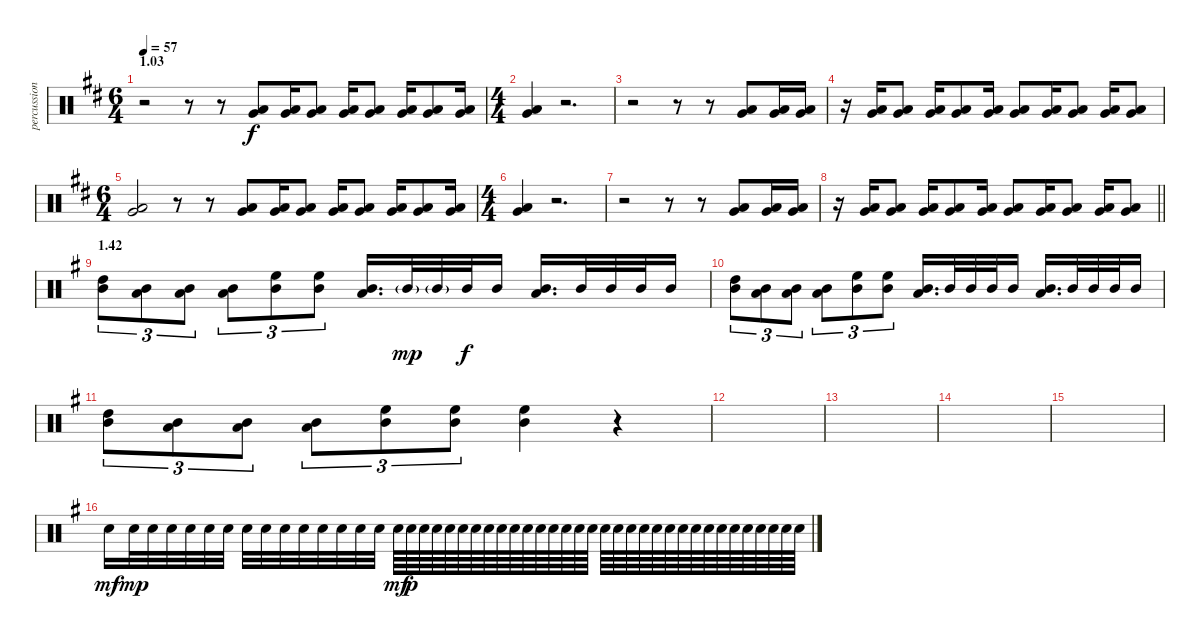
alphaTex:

\track ("percussion" "percussion") {instrument percussion}
\staff {score}
\articulation defaults
\ts (6 4)
\section ("" "1.03")
\tempo 57
\clef neutral
\ks d
r.2{dy f} r.8 r.8 ("Low Tom (hit)" "Very Low Tom (hit)").8 ("Low Tom (hit)" "Very Low Tom (hit)").16 ("Low Tom (hit)" "Very Low Tom (hit)").8 ("Low Tom (hit)" "Very Low Tom (hit)").16 ("Low Tom (hit)" "Very Low Tom (hit)").8 ("Low Tom (hit)" "Very Low Tom (hit)").16 ("Low Tom (hit)" "Very Low Tom (hit)").8 ("Low Tom (hit)" "Very Low Tom (hit)").16 |
\ts (4 4)
("Low Tom (hit)" "Very Low Tom (hit)").4 r.2{d} |
r.2 r.8 r.8 ("Low Tom (hit)" "Very Low Tom (hit)").8 ("Low Tom (hit)" "Very Low Tom (hit)").16 ("Low Tom (hit)" "Very Low Tom (hit)").16 |
r.16 ("Low Tom (hit)" "Very Low Tom (hit)").16 ("Low Tom (hit)" "Very Low Tom (hit)").8 ("Low Tom (hit)" "Very Low Tom (hit)").16 ("Low Tom (hit)" "Very Low Tom (hit)").8 ("Low Tom (hit)" "Very Low Tom (hit)").16 ("Low Tom (hit)" "Very Low Tom (hit)").8 ("Low Tom (hit)" "Very Low Tom (hit)").16 ("Low Tom (hit)" "Very Low Tom (hit)").8 ("Low Tom (hit)" "Very Low Tom (hit)").16 ("Low Tom (hit)" "Very Low Tom (hit)").8 |
\ts (6 4)
("Low Tom (hit)" "Very Low Tom (hit)").2 r.8 r.8 ("Low Tom (hit)" "Very Low Tom (hit)").8 ("Low Tom (hit)" "Very Low Tom (hit)").16 ("Low Tom (hit)" "Very Low Tom (hit)").8 ("Low Tom (hit)" "Very Low Tom (hit)").16 ("Low Tom (hit)" "Very Low Tom (hit)").8 ("Low Tom (hit)" "Very Low Tom (hit)").16 ("Low Tom (hit)" "Very Low Tom (hit)").8 ("Low Tom (hit)" "Very Low Tom (hit)").16 |
\ts (4 4)
("Low Tom (hit)" "Very Low Tom (hit)").4 r.2{d} |
r.2 r.8 r.8 ("Low Tom (hit)" "Very Low Tom (hit)").8 ("Low Tom (hit)" "Very Low Tom (hit)").16 ("Low Tom (hit)" "Very Low Tom (hit)").16 |
\barLineRight lightlight
r.16 ("Low Tom (hit)" "Very Low Tom (hit)").16 ("Low Tom (hit)" "Very Low Tom (hit)").8 ("Low Tom (hit)" "Very Low Tom (hit)").16 ("Low Tom (hit)" "Very Low Tom (hit)").8 ("Low Tom (hit)" "Very Low Tom (hit)").16 ("Low Tom (hit)" "Very Low Tom (hit)").8 ("Low Tom (hit)" "Very Low Tom (hit)").16 ("Low Tom (hit)" "Very Low Tom (hit)").8 ("Low Tom (hit)" "Very Low Tom (hit)").16 ("Low Tom (hit)" "Very Low Tom (hit)").8 |
\section ("" "1.42")
\ks g
("High Tom (hit)" "Mid Tom (hit)").8{tu (3 2)} ("Mid Tom (hit)" "Low Tom (hit)").8{tu (3 2)} ("Mid Tom (hit)" "Low Tom (hit)").8{tu (3 2)} ("Mid Tom (hit)" "Low Tom (hit)").8{tu (3 2)} ("High Floor Tom (hit)" "Mid Tom (hit)").8{tu (3 2)} ("High Floor Tom (hit)" "Mid Tom (hit)").8{tu (3 2)} ("Mid Tom (hit)" "Low Tom (hit)").16{d} "Mid Tom (hit)"{g}.32{dy mp} "Mid Tom (hit)"{g}.32 "Mid Tom (hit)".32{dy f} "Mid Tom (hit)".16 ("Mid Tom (hit)" "Low Tom (hit)").16{d} "Mid Tom (hit)".32 "Mid Tom (hit)".32 "Mid Tom (hit)".32 "Mid Tom (hit)".16 |
("High Tom (hit)" "Mid Tom (hit)").8{tu (3 2)} ("Mid Tom (hit)" "Low Tom (hit)").8{tu (3 2)} ("Mid Tom (hit)" "Low Tom (hit)").8{tu (3 2)} ("Mid Tom (hit)" "Low Tom (hit)").8{tu (3 2)} ("High Floor Tom (hit)" "Mid Tom (hit)").8{tu (3 2)} ("High Floor Tom (hit)" "Mid Tom (hit)").8{tu (3 2)} ("Mid Tom (hit)" "Low Tom (hit)").16{d} "Mid Tom (hit)".32 "Mid Tom (hit)".32 "Mid Tom (hit)".32 "Mid Tom (hit)".16 ("Mid Tom (hit)" "Low Tom (hit)").16{d} "Mid Tom (hit)".32 "Mid Tom (hit)".32 "Mid Tom (hit)".32 "Mid Tom (hit)".16 |
("High Tom (hit)" "Mid Tom (hit)").8{tu (3 2)} ("Mid Tom (hit)" "Low Tom (hit)").8{tu (3 2)} ("Mid Tom (hit)" "Low Tom (hit)").8{tu (3 2)} ("Mid Tom (hit)" "Low Tom (hit)").8{tu (3 2)} ("High Floor Tom (hit)" "Mid Tom (hit)").8{tu (3 2)} ("High Floor Tom (hit)" "Mid Tom (hit)").8{tu (3 2)} ("High Floor Tom (hit)" "Mid Tom (hit)").4 r.4 |
|
|
|
|
"Electric Snare (hit)".16{dy mf} "Electric Snare (hit)".32{dy mp} "Electric Snare (hit)".32 "Electric Snare (hit)".32 "Electric Snare (hit)".32 "Electric Snare (hit)".32 "Electric Snare (hit)".32 "Electric Snare (hit)".32 "Electric Snare (hit)".32 "Electric Snare (hit)".32 "Electric Snare (hit)".32 "Electric Snare (hit)".32 "Electric Snare (hit)".32 "Electric Snare (hit)".32 "Electric Snare (hit)".32 "Electric Snare (hit)".64{dy mf} "Electric Snare (hit)".64{dy p} "Electric Snare (hit)".64 "Electric Snare (hit)".64 "Electric Snare (hit)".64 "Electric Snare (hit)".64 "Electric Snare (hit)".64 "Electric Snare (hit)".64 "Electric Snare (hit)".64 "Electric Snare (hit)".64 "Electric Snare (hit)".64 "Electric Snare (hit)".64 "Electric Snare (hit)".64 "Electric Snare (hit)".64 "Electric Snare (hit)".64 "Electric Snare (hit)".64 "Electric Snare (hit)".64 "Electric Snare (hit)".64 "Electric Snare (hit)".64 "Electric Snare (hit)".64 "Electric Snare (hit)".64 "Electric Snare (hit)".64 "Electric Snare (hit)".64 "Electric Snare (hit)".64 "Electric Snare (hit)".64 "Electric Snare (hit)".64 "Electric Snare (hit)".64 "Electric Snare (hit)".64 "Electric Snare (hit)".64 "Electric Snare (hit)".64 "Electric Snare (hit)".64 "Electric Snare (hit)".64
